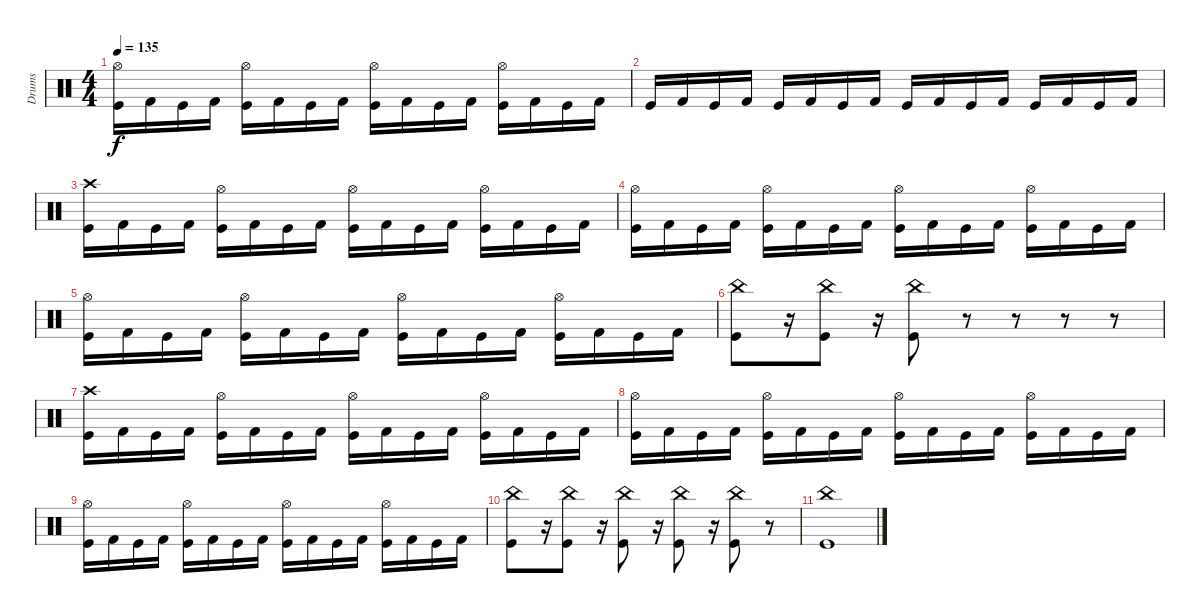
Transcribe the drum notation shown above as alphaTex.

\track ("Drums" "Drums") {instrument percussion}
\staff {score}
\articulation defaults
\ts (4 4)
\tempo 135
\clef neutral
\ks c
("Kick (hit)" "Hi-Hat (open)").16{dy f} "Kick (hit) 2".16 "Kick (hit)".16 "Kick (hit) 2".16 ("Kick (hit)" "Hi-Hat (open)").16 "Kick (hit) 2".16 "Kick (hit)".16 "Kick (hit) 2".16 ("Kick (hit)" "Hi-Hat (open)").16 "Kick (hit) 2".16 "Kick (hit)".16 "Kick (hit) 2".16 ("Kick (hit)" "Hi-Hat (open)").16 "Kick (hit) 2".16 "Kick (hit)".16 "Kick (hit) 2".16 |
"Kick (hit)".16 "Kick (hit) 2".16 "Kick (hit)".16 "Kick (hit) 2".16 "Kick (hit)".16 "Kick (hit) 2".16 "Kick (hit)".16 "Kick (hit) 2".16 "Kick (hit)".16 "Kick (hit) 2".16 "Kick (hit)".16 "Kick (hit) 2".16 "Kick (hit)".16 "Kick (hit) 2".16 "Kick (hit)".16 "Kick (hit) 2".16 |
("Kick (hit)" "Crash high (hit)").16 "Kick (hit) 2".16 "Kick (hit)".16 "Kick (hit) 2".16 ("Kick (hit)" "Hi-Hat (open)").16 "Kick (hit) 2".16 "Kick (hit)".16 "Kick (hit) 2".16 ("Kick (hit)" "Hi-Hat (open)").16 "Kick (hit) 2".16 "Kick (hit)".16 "Kick (hit) 2".16 ("Kick (hit)" "Hi-Hat (open)").16 "Kick (hit) 2".16 "Kick (hit)".16 "Kick (hit) 2".16 |
("Kick (hit)" "Hi-Hat (open)").16 "Kick (hit) 2".16 "Kick (hit)".16 "Kick (hit) 2".16 ("Kick (hit)" "Hi-Hat (open)").16 "Kick (hit) 2".16 "Kick (hit)".16 "Kick (hit) 2".16 ("Kick (hit)" "Hi-Hat (open)").16 "Kick (hit) 2".16 "Kick (hit)".16 "Kick (hit) 2".16 ("Kick (hit)" "Hi-Hat (open)").16 "Kick (hit) 2".16 "Kick (hit)".16 "Kick (hit) 2".16 |
("Kick (hit)" "Hi-Hat (open)").16 "Kick (hit) 2".16 "Kick (hit)".16 "Kick (hit) 2".16 ("Kick (hit)" "Hi-Hat (open)").16 "Kick (hit) 2".16 "Kick (hit)".16 "Kick (hit) 2".16 ("Kick (hit)" "Hi-Hat (open)").16 "Kick (hit) 2".16 "Kick (hit)".16 "Kick (hit) 2".16 ("Kick (hit)" "Hi-Hat (open)").16 "Kick (hit) 2".16 "Kick (hit)".16 "Kick (hit) 2".16 |
("Kick (hit)" "China (hit)").8 r.16 ("Kick (hit)" "China (hit)").8 r.16 ("Kick (hit)" "China (hit)").8 r.8 r.8 r.8 r.8 |
("Kick (hit)" "Crash high (hit)").16 "Kick (hit) 2".16 "Kick (hit)".16 "Kick (hit) 2".16 ("Kick (hit)" "Hi-Hat (open)").16 "Kick (hit) 2".16 "Kick (hit)".16 "Kick (hit) 2".16 ("Kick (hit)" "Hi-Hat (open)").16 "Kick (hit) 2".16 "Kick (hit)".16 "Kick (hit) 2".16 ("Kick (hit)" "Hi-Hat (open)").16 "Kick (hit) 2".16 "Kick (hit)".16 "Kick (hit) 2".16 |
("Kick (hit)" "Hi-Hat (open)").16 "Kick (hit) 2".16 "Kick (hit)".16 "Kick (hit) 2".16 ("Kick (hit)" "Hi-Hat (open)").16 "Kick (hit) 2".16 "Kick (hit)".16 "Kick (hit) 2".16 ("Kick (hit)" "Hi-Hat (open)").16 "Kick (hit) 2".16 "Kick (hit)".16 "Kick (hit) 2".16 ("Kick (hit)" "Hi-Hat (open)").16 "Kick (hit) 2".16 "Kick (hit)".16 "Kick (hit) 2".16 |
("Kick (hit)" "Hi-Hat (open)").16 "Kick (hit) 2".16 "Kick (hit)".16 "Kick (hit) 2".16 ("Kick (hit)" "Hi-Hat (open)").16 "Kick (hit) 2".16 "Kick (hit)".16 "Kick (hit) 2".16 ("Kick (hit)" "Hi-Hat (open)").16 "Kick (hit) 2".16 "Kick (hit)".16 "Kick (hit) 2".16 ("Kick (hit)" "Hi-Hat (open)").16 "Kick (hit) 2".16 "Kick (hit)".16 "Kick (hit) 2".16 |
("Kick (hit)" "China (hit)").8 r.16 ("Kick (hit)" "China (hit)").8 r.16 ("Kick (hit)" "China (hit)").8 r.16 ("Kick (hit)" "China (hit)").8 r.16 ("Kick (hit)" "China (hit)").8 r.8 |
("Kick (hit)" "China (hit)").1
